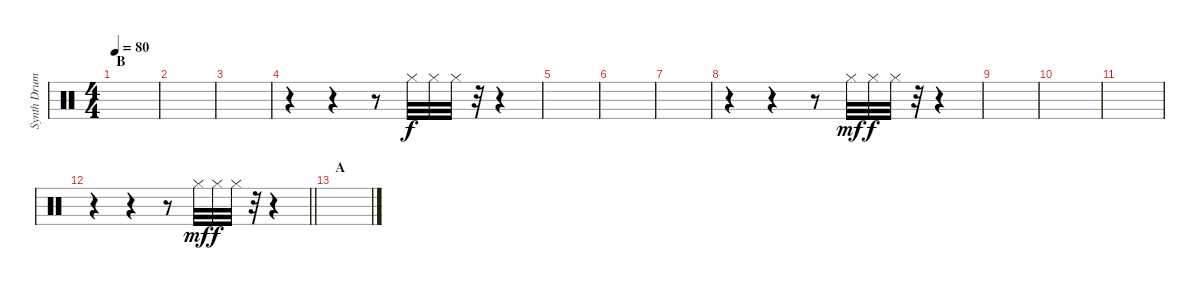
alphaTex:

\track ("Synth Drums" "Synth Drum") {instrument percussion}
\staff
\articulation defaults
\ts (4 4)
\section ("" "B")
\tempo 80
\clef neutral
\ks c
|
|
|
r.4 r.4 r.8 "Hi-Hat (closed)".32 "Hi-Hat (closed)".32{dy f} "Hi-Hat (closed)".32 r.32 r.4 |
|
|
|
r.4 r.4 r.8 "Hi-Hat (closed)".32{dy mf} "Hi-Hat (closed)".32{dy f} "Hi-Hat (closed)".32 r.32 r.4 |
|
|
|
\barLineRight lightlight
r.4 r.4 r.8 "Hi-Hat (closed)".32{dy mf} "Hi-Hat (closed)".32{dy f} "Hi-Hat (closed)".32 r.32 r.4 |
\section ("" "A")
